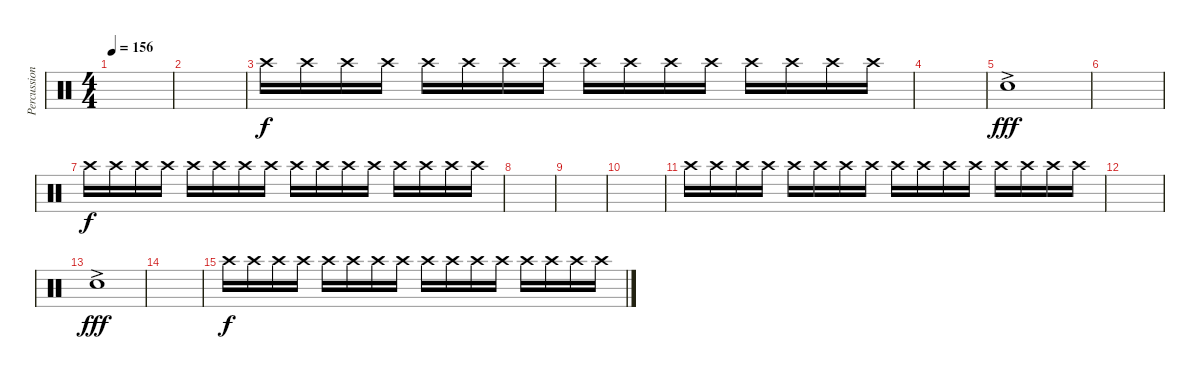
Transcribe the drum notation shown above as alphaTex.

\track ("Percussion" "Percussion") {instrument percussion}
\staff {score}
\articulation defaults
\ts (4 4)
\tempo 156
\clef neutral
\ks c
|
|
"Crash high (hit)".16 "Crash high (hit)".16 "Crash high (hit)".16 "Crash high (hit)".16 "Crash high (hit)".16 "Crash high (hit)".16 "Crash high (hit)".16 "Crash high (hit)".16 "Crash high (hit)".16 "Crash high (hit)".16 "Crash high (hit)".16 "Crash high (hit)".16 "Crash high (hit)".16 "Crash high (hit)".16 "Crash high (hit)".16 "Crash high (hit)".16 |
|
"Hand Clap (hit)"{ac}.1{dy fff volume 16} |
|
"Crash high (hit)".16{dy f volume 6} "Crash high (hit)".16 "Crash high (hit)".16 "Crash high (hit)".16 "Crash high (hit)".16 "Crash high (hit)".16 "Crash high (hit)".16 "Crash high (hit)".16 "Crash high (hit)".16 "Crash high (hit)".16 "Crash high (hit)".16 "Crash high (hit)".16 "Crash high (hit)".16 "Crash high (hit)".16 "Crash high (hit)".16 "Crash high (hit)".16 |
|
|
|
"Crash high (hit)".16 "Crash high (hit)".16 "Crash high (hit)".16 "Crash high (hit)".16 "Crash high (hit)".16 "Crash high (hit)".16 "Crash high (hit)".16 "Crash high (hit)".16 "Crash high (hit)".16 "Crash high (hit)".16 "Crash high (hit)".16 "Crash high (hit)".16 "Crash high (hit)".16 "Crash high (hit)".16 "Crash high (hit)".16 "Crash high (hit)".16 |
|
"Hand Clap (hit)"{ac}.1{dy fff volume 16} |
|
"Crash high (hit)".16{dy f volume 6} "Crash high (hit)".16 "Crash high (hit)".16 "Crash high (hit)".16 "Crash high (hit)".16 "Crash high (hit)".16 "Crash high (hit)".16 "Crash high (hit)".16 "Crash high (hit)".16 "Crash high (hit)".16 "Crash high (hit)".16 "Crash high (hit)".16 "Crash high (hit)".16 "Crash high (hit)".16 "Crash high (hit)".16 "Crash high (hit)".16
